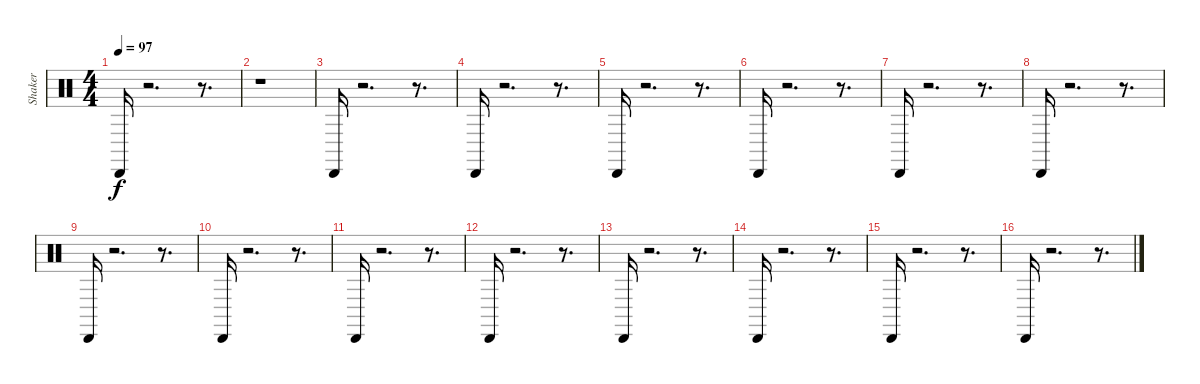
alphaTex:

\track ("Shaker" "Shaker") {instrument percussion}
\staff {score}
\articulation defaults
\ts (4 4)
\tempo 97
\clef neutral
\ks c "Cabasa (hit)".16{dy f}
r.2{d} r.8{d} |
r.1 |
"Cabasa (hit)".16 r.2{d} r.8{d} |
"Cabasa (hit)".16 r.2{d} r.8{d} |
"Cabasa (hit)".16 r.2{d} r.8{d} |
"Cabasa (hit)".16 r.2{d} r.8{d} |
"Cabasa (hit)".16 r.2{d} r.8{d} |
"Cabasa (hit)".16 r.2{d} r.8{d} |
"Cabasa (hit)".16 r.2{d} r.8{d} |
"Cabasa (hit)".16 r.2{d} r.8{d} |
"Cabasa (hit)".16 r.2{d} r.8{d} |
"Cabasa (hit)".16 r.2{d} r.8{d} |
"Cabasa (hit)".16 r.2{d} r.8{d} |
"Cabasa (hit)".16 r.2{d} r.8{d} |
"Cabasa (hit)".16 r.2{d} r.8{d} |
"Cabasa (hit)".16 r.2{d} r.8{d}
